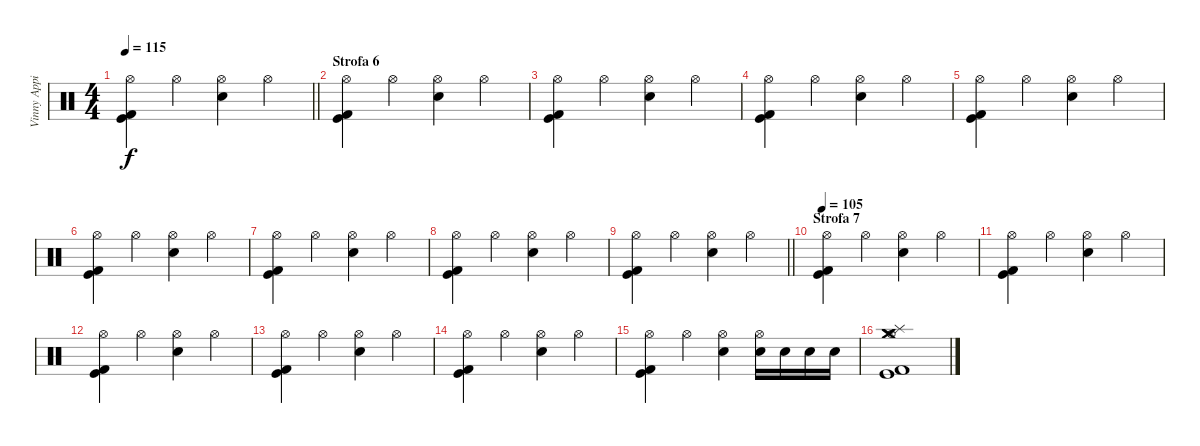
\track ("Vinny Appice" "Vinny Appi") {instrument percussion}
\staff {score}
\articulation defaults
\ts (4 4)
\tempo 115
\clef neutral
\barLineRight lightlight
\ks c
("Hi-Hat (open)" "Kick (hit)" "Kick (hit) 2").4{dy f} "Hi-Hat (open)".4 ("Hi-Hat (open)" "Snare (hit) 2").4 "Hi-Hat (open)".4 |
\section ("" "Strofa 6")
("Hi-Hat (open)" "Kick (hit)" "Kick (hit) 2").4 "Hi-Hat (open)".4 ("Hi-Hat (open)" "Snare (hit) 2").4 "Hi-Hat (open)".4 |
("Hi-Hat (open)" "Kick (hit)" "Kick (hit) 2").4 "Hi-Hat (open)".4 ("Hi-Hat (open)" "Snare (hit) 2").4 "Hi-Hat (open)".4 |
("Hi-Hat (open)" "Kick (hit)" "Kick (hit) 2").4 "Hi-Hat (open)".4 ("Hi-Hat (open)" "Snare (hit) 2").4 "Hi-Hat (open)".4 |
("Hi-Hat (open)" "Kick (hit)" "Kick (hit) 2").4 "Hi-Hat (open)".4 ("Hi-Hat (open)" "Snare (hit) 2").4 "Hi-Hat (open)".4 |
("Hi-Hat (open)" "Kick (hit)" "Kick (hit) 2").4 "Hi-Hat (open)".4 ("Hi-Hat (open)" "Snare (hit) 2").4 "Hi-Hat (open)".4 |
("Hi-Hat (open)" "Kick (hit)" "Kick (hit) 2").4 "Hi-Hat (open)".4 ("Hi-Hat (open)" "Snare (hit) 2").4 "Hi-Hat (open)".4 |
("Hi-Hat (open)" "Kick (hit)" "Kick (hit) 2").4 "Hi-Hat (open)".4 ("Hi-Hat (open)" "Snare (hit) 2").4 "Hi-Hat (open)".4 |
\barLineRight lightlight
("Hi-Hat (open)" "Kick (hit)" "Kick (hit) 2").4 "Hi-Hat (open)".4 ("Hi-Hat (open)" "Snare (hit) 2").4 "Hi-Hat (open)".4 |
\section ("" "Strofa 7")
\tempo 105
("Hi-Hat (open)" "Kick (hit)" "Kick (hit) 2").4 "Hi-Hat (open)".4 ("Hi-Hat (open)" "Snare (hit) 2").4 "Hi-Hat (open)".4 |
("Hi-Hat (open)" "Kick (hit)" "Kick (hit) 2").4 "Hi-Hat (open)".4 ("Hi-Hat (open)" "Snare (hit) 2").4 "Hi-Hat (open)".4 |
("Hi-Hat (open)" "Kick (hit)" "Kick (hit) 2").4 "Hi-Hat (open)".4 ("Hi-Hat (open)" "Snare (hit) 2").4 "Hi-Hat (open)".4 |
("Hi-Hat (open)" "Kick (hit)" "Kick (hit) 2").4 "Hi-Hat (open)".4 ("Hi-Hat (open)" "Snare (hit) 2").4 "Hi-Hat (open)".4 |
("Hi-Hat (open)" "Kick (hit)" "Kick (hit) 2").4 "Hi-Hat (open)".4 ("Hi-Hat (open)" "Snare (hit) 2").4 "Hi-Hat (open)".4 |
("Hi-Hat (open)" "Kick (hit)" "Kick (hit) 2").4 "Hi-Hat (open)".4 ("Hi-Hat (open)" "Snare (hit) 2").4 ("Hi-Hat (open)" "Snare (hit) 2").16 "Snare (hit) 2".16 "Snare (hit) 2".16 "Snare (hit) 2".16 |
("Hi-Hat (open)" "Splash (hit)" "Kick (hit)" "Kick (hit) 2" "Crash medium (hit)" "Crash medium (hit)").1
